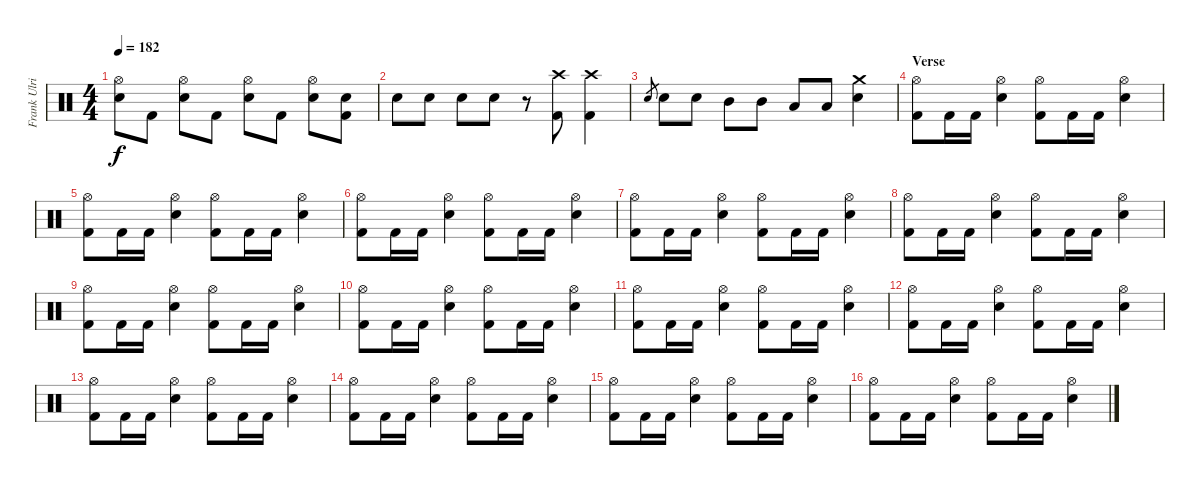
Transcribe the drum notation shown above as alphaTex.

\track ("Frank Ulrich" "Frank Ulri") {instrument percussion}
\staff {score}
\articulation defaults
\ts (4 4)
\tempo 182
\clef neutral
\ks c
("Hi-Hat (open)" "Snare (hit) 2").8{dy f} "Kick (hit) 2".8 ("Hi-Hat (open)" "Snare (hit) 2").8 "Kick (hit) 2".8 ("Hi-Hat (open)" "Snare (hit) 2").8 "Kick (hit) 2".8 ("Hi-Hat (open)" "Snare (hit) 2").8 ("Snare (hit) 2" "Kick (hit) 2").8 |
"Snare (hit) 2".8 "Snare (hit) 2".8 "Snare (hit) 2".8 "Snare (hit) 2".8 r.8 ("Crash high (hit)" "Kick (hit) 2").8 ("Crash high (hit)" "Kick (hit) 2").4 |
"Snare (hit) 2".8{gr} "Snare (hit) 2".8 "Snare (hit) 2".8 "Mid Tom (hit)".8 "Mid Tom (hit)".8 "Low Tom (hit)".8 "Low Tom (hit)".8 ("Crash medium (hit)" "Snare (hit) 2").4 |
\section ("" "Verse")
("Hi-Hat (open)" "Kick (hit) 2").8 "Kick (hit) 2".16 "Kick (hit) 2".16 ("Hi-Hat (open)" "Snare (hit) 2").4 ("Hi-Hat (open)" "Kick (hit) 2").8 "Kick (hit) 2".16 "Kick (hit) 2".16 ("Hi-Hat (open)" "Snare (hit) 2").4 |
("Hi-Hat (open)" "Kick (hit) 2").8 "Kick (hit) 2".16 "Kick (hit) 2".16 ("Hi-Hat (open)" "Snare (hit) 2").4 ("Hi-Hat (open)" "Kick (hit) 2").8 "Kick (hit) 2".16 "Kick (hit) 2".16 ("Hi-Hat (open)" "Snare (hit) 2").4 |
("Hi-Hat (open)" "Kick (hit) 2").8 "Kick (hit) 2".16 "Kick (hit) 2".16 ("Hi-Hat (open)" "Snare (hit) 2").4 ("Hi-Hat (open)" "Kick (hit) 2").8 "Kick (hit) 2".16 "Kick (hit) 2".16 ("Hi-Hat (open)" "Snare (hit) 2").4 |
("Hi-Hat (open)" "Kick (hit) 2").8 "Kick (hit) 2".16 "Kick (hit) 2".16 ("Hi-Hat (open)" "Snare (hit) 2").4 ("Hi-Hat (open)" "Kick (hit) 2").8 "Kick (hit) 2".16 "Kick (hit) 2".16 ("Hi-Hat (open)" "Snare (hit) 2").4 |
("Hi-Hat (open)" "Kick (hit) 2").8 "Kick (hit) 2".16 "Kick (hit) 2".16 ("Hi-Hat (open)" "Snare (hit) 2").4 ("Hi-Hat (open)" "Kick (hit) 2").8 "Kick (hit) 2".16 "Kick (hit) 2".16 ("Hi-Hat (open)" "Snare (hit) 2").4 |
("Hi-Hat (open)" "Kick (hit) 2").8 "Kick (hit) 2".16 "Kick (hit) 2".16 ("Hi-Hat (open)" "Snare (hit) 2").4 ("Hi-Hat (open)" "Kick (hit) 2").8 "Kick (hit) 2".16 "Kick (hit) 2".16 ("Hi-Hat (open)" "Snare (hit) 2").4 |
("Hi-Hat (open)" "Kick (hit) 2").8 "Kick (hit) 2".16 "Kick (hit) 2".16 ("Hi-Hat (open)" "Snare (hit) 2").4 ("Hi-Hat (open)" "Kick (hit) 2").8 "Kick (hit) 2".16 "Kick (hit) 2".16 ("Hi-Hat (open)" "Snare (hit) 2").4 |
("Hi-Hat (open)" "Kick (hit) 2").8 "Kick (hit) 2".16 "Kick (hit) 2".16 ("Hi-Hat (open)" "Snare (hit) 2").4 ("Hi-Hat (open)" "Kick (hit) 2").8 "Kick (hit) 2".16 "Kick (hit) 2".16 ("Hi-Hat (open)" "Snare (hit) 2").4 |
("Hi-Hat (open)" "Kick (hit) 2").8 "Kick (hit) 2".16 "Kick (hit) 2".16 ("Hi-Hat (open)" "Snare (hit) 2").4 ("Hi-Hat (open)" "Kick (hit) 2").8 "Kick (hit) 2".16 "Kick (hit) 2".16 ("Hi-Hat (open)" "Snare (hit) 2").4 |
("Hi-Hat (open)" "Kick (hit) 2").8 "Kick (hit) 2".16 "Kick (hit) 2".16 ("Hi-Hat (open)" "Snare (hit) 2").4 ("Hi-Hat (open)" "Kick (hit) 2").8 "Kick (hit) 2".16 "Kick (hit) 2".16 ("Hi-Hat (open)" "Snare (hit) 2").4 |
("Hi-Hat (open)" "Kick (hit) 2").8 "Kick (hit) 2".16 "Kick (hit) 2".16 ("Hi-Hat (open)" "Snare (hit) 2").4 ("Hi-Hat (open)" "Kick (hit) 2").8 "Kick (hit) 2".16 "Kick (hit) 2".16 ("Hi-Hat (open)" "Snare (hit) 2").4 |
("Hi-Hat (open)" "Kick (hit) 2").8 "Kick (hit) 2".16 "Kick (hit) 2".16 ("Hi-Hat (open)" "Snare (hit) 2").4 ("Hi-Hat (open)" "Kick (hit) 2").8 "Kick (hit) 2".16 "Kick (hit) 2".16 ("Hi-Hat (open)" "Snare (hit) 2").4 |
("Hi-Hat (open)" "Kick (hit) 2").8 "Kick (hit) 2".16 "Kick (hit) 2".16 ("Hi-Hat (open)" "Snare (hit) 2").4 ("Hi-Hat (open)" "Kick (hit) 2").8 "Kick (hit) 2".16 "Kick (hit) 2".16 ("Hi-Hat (open)" "Snare (hit) 2").4
